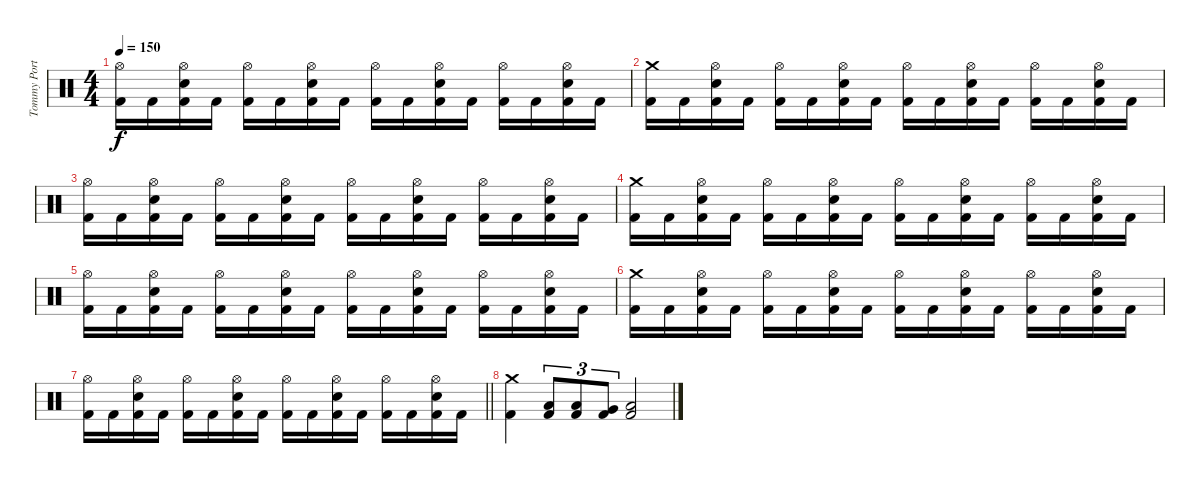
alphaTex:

\track ("Tommy Portimo" "Tommy Port") {instrument percussion}
\staff {score}
\articulation defaults
\ts (4 4)
\tempo 150
\clef neutral
\ks c
("Hi-Hat (open)" "Kick (hit) 2").16{dy f} "Kick (hit) 2".16 ("Hi-Hat (open)" "Electric Snare (hit)" "Kick (hit) 2").16 "Kick (hit) 2".16 ("Hi-Hat (open)" "Kick (hit) 2").16 "Kick (hit) 2".16 ("Hi-Hat (open)" "Electric Snare (hit)" "Kick (hit) 2").16 "Kick (hit) 2".16 ("Hi-Hat (open)" "Kick (hit) 2").16 "Kick (hit) 2".16 ("Hi-Hat (open)" "Electric Snare (hit)" "Kick (hit) 2").16 "Kick (hit) 2".16 ("Hi-Hat (open)" "Kick (hit) 2").16 "Kick (hit) 2".16 ("Hi-Hat (open)" "Electric Snare (hit)" "Kick (hit) 2").16 "Kick (hit) 2".16 |
("Crash medium (hit)" "Kick (hit) 2").16 "Kick (hit) 2".16 ("Hi-Hat (open)" "Electric Snare (hit)" "Kick (hit) 2").16 "Kick (hit) 2".16 ("Hi-Hat (open)" "Kick (hit) 2").16 "Kick (hit) 2".16 ("Hi-Hat (open)" "Electric Snare (hit)" "Kick (hit) 2").16 "Kick (hit) 2".16 ("Hi-Hat (open)" "Kick (hit) 2").16 "Kick (hit) 2".16 ("Hi-Hat (open)" "Electric Snare (hit)" "Kick (hit) 2").16 "Kick (hit) 2".16 ("Hi-Hat (open)" "Kick (hit) 2").16 "Kick (hit) 2".16 ("Hi-Hat (open)" "Electric Snare (hit)" "Kick (hit) 2").16 "Kick (hit) 2".16 |
("Hi-Hat (open)" "Kick (hit) 2").16 "Kick (hit) 2".16 ("Hi-Hat (open)" "Electric Snare (hit)" "Kick (hit) 2").16 "Kick (hit) 2".16 ("Hi-Hat (open)" "Kick (hit) 2").16 "Kick (hit) 2".16 ("Hi-Hat (open)" "Electric Snare (hit)" "Kick (hit) 2").16 "Kick (hit) 2".16 ("Hi-Hat (open)" "Kick (hit) 2").16 "Kick (hit) 2".16 ("Hi-Hat (open)" "Electric Snare (hit)" "Kick (hit) 2").16 "Kick (hit) 2".16 ("Hi-Hat (open)" "Kick (hit) 2").16 "Kick (hit) 2".16 ("Hi-Hat (open)" "Electric Snare (hit)" "Kick (hit) 2").16 "Kick (hit) 2".16 |
("Crash medium (hit)" "Kick (hit) 2").16 "Kick (hit) 2".16 ("Hi-Hat (open)" "Electric Snare (hit)" "Kick (hit) 2").16 "Kick (hit) 2".16 ("Hi-Hat (open)" "Kick (hit) 2").16 "Kick (hit) 2".16 ("Hi-Hat (open)" "Electric Snare (hit)" "Kick (hit) 2").16 "Kick (hit) 2".16 ("Hi-Hat (open)" "Kick (hit) 2").16 "Kick (hit) 2".16 ("Hi-Hat (open)" "Electric Snare (hit)" "Kick (hit) 2").16 "Kick (hit) 2".16 ("Hi-Hat (open)" "Kick (hit) 2").16 "Kick (hit) 2".16 ("Hi-Hat (open)" "Electric Snare (hit)" "Kick (hit) 2").16 "Kick (hit) 2".16 |
("Hi-Hat (open)" "Kick (hit) 2").16 "Kick (hit) 2".16 ("Hi-Hat (open)" "Electric Snare (hit)" "Kick (hit) 2").16 "Kick (hit) 2".16 ("Hi-Hat (open)" "Kick (hit) 2").16 "Kick (hit) 2".16 ("Hi-Hat (open)" "Electric Snare (hit)" "Kick (hit) 2").16 "Kick (hit) 2".16 ("Hi-Hat (open)" "Kick (hit) 2").16 "Kick (hit) 2".16 ("Hi-Hat (open)" "Electric Snare (hit)" "Kick (hit) 2").16 "Kick (hit) 2".16 ("Hi-Hat (open)" "Kick (hit) 2").16 "Kick (hit) 2".16 ("Hi-Hat (open)" "Electric Snare (hit)" "Kick (hit) 2").16 "Kick (hit) 2".16 |
("Crash medium (hit)" "Kick (hit) 2").16 "Kick (hit) 2".16 ("Hi-Hat (open)" "Electric Snare (hit)" "Kick (hit) 2").16 "Kick (hit) 2".16 ("Hi-Hat (open)" "Kick (hit) 2").16 "Kick (hit) 2".16 ("Hi-Hat (open)" "Electric Snare (hit)" "Kick (hit) 2").16 "Kick (hit) 2".16 ("Hi-Hat (open)" "Kick (hit) 2").16 "Kick (hit) 2".16 ("Hi-Hat (open)" "Electric Snare (hit)" "Kick (hit) 2").16 "Kick (hit) 2".16 ("Hi-Hat (open)" "Kick (hit) 2").16 "Kick (hit) 2".16 ("Hi-Hat (open)" "Electric Snare (hit)" "Kick (hit) 2").16 "Kick (hit) 2".16 |
\barLineRight lightlight
("Hi-Hat (open)" "Kick (hit) 2").16 "Kick (hit) 2".16 ("Hi-Hat (open)" "Electric Snare (hit)" "Kick (hit) 2").16 "Kick (hit) 2".16 ("Hi-Hat (open)" "Kick (hit) 2").16 "Kick (hit) 2".16 ("Hi-Hat (open)" "Electric Snare (hit)" "Kick (hit) 2").16 "Kick (hit) 2".16 ("Hi-Hat (open)" "Kick (hit) 2").16 "Kick (hit) 2".16 ("Hi-Hat (open)" "Electric Snare (hit)" "Kick (hit) 2").16 "Kick (hit) 2".16 ("Hi-Hat (open)" "Kick (hit) 2").16 "Kick (hit) 2".16 ("Hi-Hat (open)" "Electric Snare (hit)" "Kick (hit) 2").16 "Kick (hit) 2".16 |
("Crash medium (hit)" "Kick (hit) 2").4 ("Low Tom (hit)" "Kick (hit) 2").8{tu (3 2)} ("Low Tom (hit)" "Kick (hit) 2").8{tu (3 2)} ("Very Low Tom (hit)" "Kick (hit) 2").8{tu (3 2)} ("Low Floor Tom (hit)" "Kick (hit) 2").2
